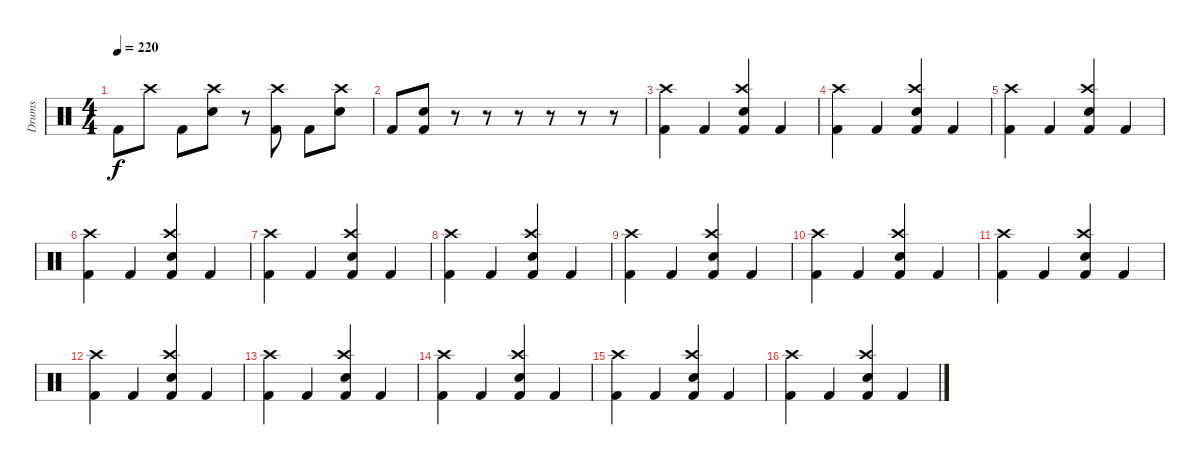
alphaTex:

\track ("Drums" "Drums") {instrument percussion}
\staff {score}
\articulation defaults
\ts (4 4)
\tempo 220
\clef neutral
\ks c "Kick (hit) 2".8{dy f} "Crash high (hit)".8 "Kick (hit) 2".8
("Crash high (hit)" "Snare (hit) 2").8 r.8 ("Crash high (hit)" "Kick (hit) 2").8 "Kick (hit) 2".8 ("Crash high (hit)" "Snare (hit) 2").8 |
"Kick (hit) 2".8 ("Snare (hit) 2" "Kick (hit) 2").8 r.8 r.8 r.8 r.8 r.8 r.8 |
("Crash high (hit)" "Kick (hit) 2").4 "Kick (hit) 2".4 ("Crash high (hit)" "Snare (hit) 2" "Kick (hit) 2").4 "Kick (hit) 2".4 |
("Crash high (hit)" "Kick (hit) 2").4 "Kick (hit) 2".4 ("Crash high (hit)" "Snare (hit) 2" "Kick (hit) 2").4 "Kick (hit) 2".4 |
("Crash high (hit)" "Kick (hit) 2").4 "Kick (hit) 2".4 ("Crash high (hit)" "Snare (hit) 2" "Kick (hit) 2").4 "Kick (hit) 2".4 |
("Crash high (hit)" "Kick (hit) 2").4 "Kick (hit) 2".4 ("Crash high (hit)" "Snare (hit) 2" "Kick (hit) 2").4 "Kick (hit) 2".4 |
("Crash high (hit)" "Kick (hit) 2").4 "Kick (hit) 2".4 ("Crash high (hit)" "Snare (hit) 2" "Kick (hit) 2").4 "Kick (hit) 2".4 |
("Crash high (hit)" "Kick (hit) 2").4 "Kick (hit) 2".4 ("Crash high (hit)" "Snare (hit) 2" "Kick (hit) 2").4 "Kick (hit) 2".4 |
("Crash high (hit)" "Kick (hit) 2").4 "Kick (hit) 2".4 ("Crash high (hit)" "Snare (hit) 2" "Kick (hit) 2").4 "Kick (hit) 2".4 |
("Crash high (hit)" "Kick (hit) 2").4 "Kick (hit) 2".4 ("Crash high (hit)" "Snare (hit) 2" "Kick (hit) 2").4 "Kick (hit) 2".4 |
("Crash high (hit)" "Kick (hit) 2").4 "Kick (hit) 2".4 ("Crash high (hit)" "Snare (hit) 2" "Kick (hit) 2").4 "Kick (hit) 2".4 |
("Crash high (hit)" "Kick (hit) 2").4 "Kick (hit) 2".4 ("Crash high (hit)" "Snare (hit) 2" "Kick (hit) 2").4 "Kick (hit) 2".4 |
("Crash high (hit)" "Kick (hit) 2").4 "Kick (hit) 2".4 ("Crash high (hit)" "Snare (hit) 2" "Kick (hit) 2").4 "Kick (hit) 2".4 |
("Crash high (hit)" "Kick (hit) 2").4 "Kick (hit) 2".4 ("Crash high (hit)" "Snare (hit) 2" "Kick (hit) 2").4 "Kick (hit) 2".4 |
("Crash high (hit)" "Kick (hit) 2").4 "Kick (hit) 2".4 ("Crash high (hit)" "Snare (hit) 2" "Kick (hit) 2").4 "Kick (hit) 2".4 |
("Crash high (hit)" "Kick (hit) 2").4 "Kick (hit) 2".4 ("Crash high (hit)" "Snare (hit) 2" "Kick (hit) 2").4 "Kick (hit) 2".4
